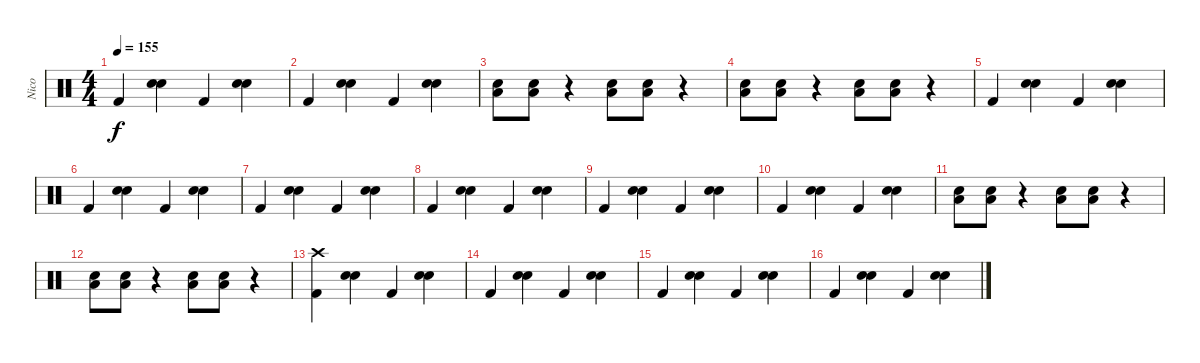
\track ("Nico" "Nico") {instrument percussion}
\staff {score}
\articulation defaults
\ts (4 4)
\tempo 155
\clef neutral
\ks c "Kick (hit) 2".4{dy f}
("Electric Snare (hit)" "Electric Snare (hit)").4{bd 240} "Kick (hit) 2".4 ("Electric Snare (hit)" "Electric Snare (hit)").4{bd 240} |
"Kick (hit) 2".4 ("Electric Snare (hit)" "Electric Snare (hit)").4{bd 240} "Kick (hit) 2".4 ("Electric Snare (hit)" "Electric Snare (hit)").4{bd 240} |
("Electric Snare (hit)" "Low Floor Tom (hit)").8 ("Electric Snare (hit)" "Low Floor Tom (hit)").8 r.4 ("Electric Snare (hit)" "Low Floor Tom (hit)").8 ("Electric Snare (hit)" "Low Floor Tom (hit)").8 r.4 |
("Electric Snare (hit)" "Low Floor Tom (hit)").8 ("Electric Snare (hit)" "Low Floor Tom (hit)").8 r.4 ("Electric Snare (hit)" "Low Floor Tom (hit)").8 ("Electric Snare (hit)" "Low Floor Tom (hit)").8 r.4 |
"Kick (hit) 2".4 ("Electric Snare (hit)" "Electric Snare (hit)").4{bd 240} "Kick (hit) 2".4 ("Electric Snare (hit)" "Electric Snare (hit)").4{bd 240} |
"Kick (hit) 2".4 ("Electric Snare (hit)" "Electric Snare (hit)").4{bd 240} "Kick (hit) 2".4 ("Electric Snare (hit)" "Electric Snare (hit)").4{bd 240} |
"Kick (hit) 2".4 ("Electric Snare (hit)" "Electric Snare (hit)").4{bd 240} "Kick (hit) 2".4 ("Electric Snare (hit)" "Electric Snare (hit)").4{bd 240} |
"Kick (hit) 2".4 ("Electric Snare (hit)" "Electric Snare (hit)").4{bd 240} "Kick (hit) 2".4 ("Electric Snare (hit)" "Electric Snare (hit)").4{bd 240} |
"Kick (hit) 2".4 ("Electric Snare (hit)" "Electric Snare (hit)").4{bd 240} "Kick (hit) 2".4 ("Electric Snare (hit)" "Electric Snare (hit)").4{bd 240} |
"Kick (hit) 2".4 ("Electric Snare (hit)" "Electric Snare (hit)").4{bd 240} "Kick (hit) 2".4 ("Electric Snare (hit)" "Electric Snare (hit)").4{bd 240} |
("Electric Snare (hit)" "Low Floor Tom (hit)").8 ("Electric Snare (hit)" "Low Floor Tom (hit)").8 r.4 ("Electric Snare (hit)" "Low Floor Tom (hit)").8 ("Electric Snare (hit)" "Low Floor Tom (hit)").8 r.4 |
("Electric Snare (hit)" "Low Floor Tom (hit)").8 ("Electric Snare (hit)" "Low Floor Tom (hit)").8 r.4 ("Electric Snare (hit)" "Low Floor Tom (hit)").8 ("Electric Snare (hit)" "Low Floor Tom (hit)").8 r.4 |
("Kick (hit) 2" "Crash high (hit)").4 ("Electric Snare (hit)" "Electric Snare (hit)").4{bd 240} "Kick (hit) 2".4 ("Electric Snare (hit)" "Electric Snare (hit)").4{bd 240} |
"Kick (hit) 2".4 ("Electric Snare (hit)" "Electric Snare (hit)").4{bd 240} "Kick (hit) 2".4 ("Electric Snare (hit)" "Electric Snare (hit)").4{bd 240} |
"Kick (hit) 2".4 ("Electric Snare (hit)" "Electric Snare (hit)").4{bd 240} "Kick (hit) 2".4 ("Electric Snare (hit)" "Electric Snare (hit)").4{bd 240} |
"Kick (hit) 2".4 ("Electric Snare (hit)" "Electric Snare (hit)").4{bd 240} "Kick (hit) 2".4 ("Electric Snare (hit)" "Electric Snare (hit)").4{bd 240}
